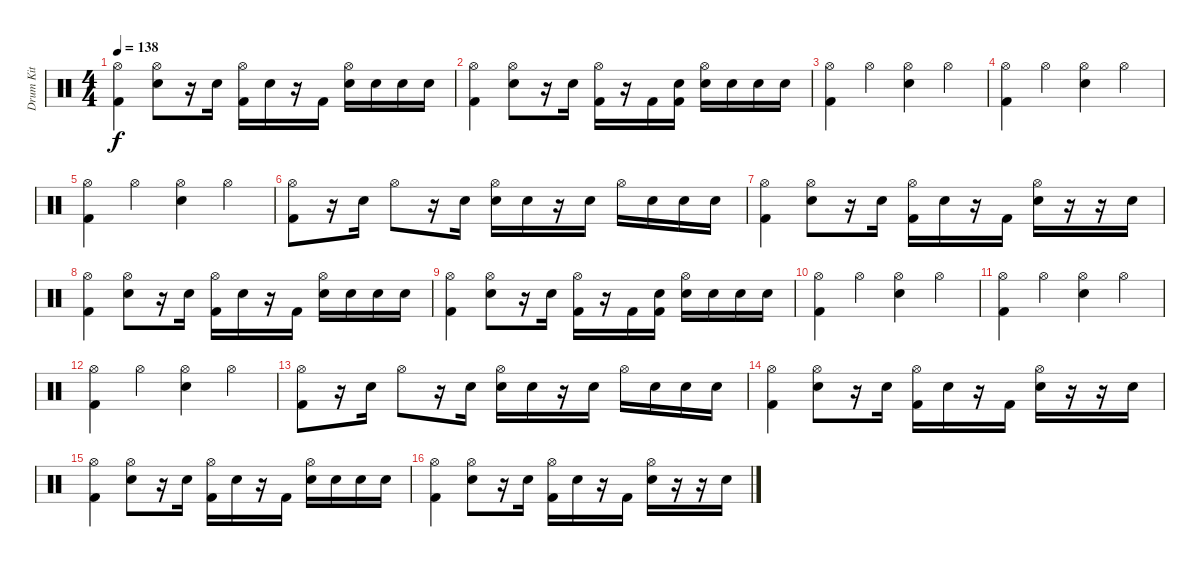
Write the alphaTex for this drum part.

\track ("Drum Kit" "Drum Kit") {instrument percussion}
\staff {score}
\articulation defaults
\ts (4 4)
\tempo 138
\clef neutral
\ks c
("Hi-Hat (open)" "Kick (hit) 2").4{dy f} ("Hi-Hat (open)" "Snare (hit) 2").8 r.16 "Snare (hit) 2".16 ("Hi-Hat (open)" "Kick (hit) 2").16 "Snare (hit) 2".16 r.16 "Kick (hit) 2".16 ("Hi-Hat (open)" "Snare (hit) 2").16 "Snare (hit) 2".16 "Snare (hit) 2".16 "Snare (hit) 2".16 |
("Hi-Hat (open)" "Kick (hit) 2").4 ("Hi-Hat (open)" "Snare (hit) 2").8 r.16 "Snare (hit) 2".16 ("Hi-Hat (open)" "Kick (hit) 2").16 r.16 "Kick (hit) 2".16 ("Snare (hit) 2" "Kick (hit) 2").16 ("Hi-Hat (open)" "Snare (hit) 2").16 "Snare (hit) 2".16 "Snare (hit) 2".16 "Snare (hit) 2".16 |
("Hi-Hat (open)" "Kick (hit) 2").4 "Hi-Hat (open)".4 ("Hi-Hat (open)" "Snare (hit) 2").4 "Hi-Hat (open)".4 |
("Hi-Hat (open)" "Kick (hit) 2").4 "Hi-Hat (open)".4 ("Hi-Hat (open)" "Snare (hit) 2").4 "Hi-Hat (open)".4 |
("Hi-Hat (open)" "Kick (hit) 2").4 "Hi-Hat (open)".4 ("Hi-Hat (open)" "Snare (hit) 2").4 "Hi-Hat (open)".4 |
("Hi-Hat (open)" "Kick (hit) 2").8 r.16 "Snare (hit) 2".16 "Hi-Hat (open)".8 r.16 "Snare (hit) 2".16 ("Hi-Hat (open)" "Snare (hit) 2").16 "Snare (hit) 2".16 r.16 "Snare (hit) 2".16 "Hi-Hat (open)".16 "Snare (hit) 2".16 "Snare (hit) 2".16 "Snare (hit) 2".16 |
("Hi-Hat (open)" "Kick (hit) 2").4 ("Hi-Hat (open)" "Snare (hit) 2").8 r.16 "Snare (hit) 2".16 ("Hi-Hat (open)" "Kick (hit) 2").16 "Snare (hit) 2".16 r.16 "Kick (hit) 2".16 ("Hi-Hat (open)" "Snare (hit) 2").16 r.16 r.16 "Snare (hit) 2".16 |
("Hi-Hat (open)" "Kick (hit) 2").4 ("Hi-Hat (open)" "Snare (hit) 2").8 r.16 "Snare (hit) 2".16 ("Hi-Hat (open)" "Kick (hit) 2").16 "Snare (hit) 2".16 r.16 "Kick (hit) 2".16 ("Hi-Hat (open)" "Snare (hit) 2").16 "Snare (hit) 2".16 "Snare (hit) 2".16 "Snare (hit) 2".16 |
("Hi-Hat (open)" "Kick (hit) 2").4 ("Hi-Hat (open)" "Snare (hit) 2").8 r.16 "Snare (hit) 2".16 ("Hi-Hat (open)" "Kick (hit) 2").16 r.16 "Kick (hit) 2".16 ("Snare (hit) 2" "Kick (hit) 2").16 ("Hi-Hat (open)" "Snare (hit) 2").16 "Snare (hit) 2".16 "Snare (hit) 2".16 "Snare (hit) 2".16 |
("Hi-Hat (open)" "Kick (hit) 2").4 "Hi-Hat (open)".4 ("Hi-Hat (open)" "Snare (hit) 2").4 "Hi-Hat (open)".4 |
("Hi-Hat (open)" "Kick (hit) 2").4 "Hi-Hat (open)".4 ("Hi-Hat (open)" "Snare (hit) 2").4 "Hi-Hat (open)".4 |
("Hi-Hat (open)" "Kick (hit) 2").4 "Hi-Hat (open)".4 ("Hi-Hat (open)" "Snare (hit) 2").4 "Hi-Hat (open)".4 |
("Hi-Hat (open)" "Kick (hit) 2").8 r.16 "Snare (hit) 2".16 "Hi-Hat (open)".8 r.16 "Snare (hit) 2".16 ("Hi-Hat (open)" "Snare (hit) 2").16 "Snare (hit) 2".16 r.16 "Snare (hit) 2".16 "Hi-Hat (open)".16 "Snare (hit) 2".16 "Snare (hit) 2".16 "Snare (hit) 2".16 |
("Hi-Hat (open)" "Kick (hit) 2").4 ("Hi-Hat (open)" "Snare (hit) 2").8 r.16 "Snare (hit) 2".16 ("Hi-Hat (open)" "Kick (hit) 2").16 "Snare (hit) 2".16 r.16 "Kick (hit) 2".16 ("Hi-Hat (open)" "Snare (hit) 2").16 r.16 r.16 "Snare (hit) 2".16 |
("Hi-Hat (open)" "Kick (hit) 2").4 ("Hi-Hat (open)" "Snare (hit) 2").8 r.16 "Snare (hit) 2".16 ("Hi-Hat (open)" "Kick (hit) 2").16 "Snare (hit) 2".16 r.16 "Kick (hit) 2".16 ("Hi-Hat (open)" "Snare (hit) 2").16 "Snare (hit) 2".16 "Snare (hit) 2".16 "Snare (hit) 2".16 |
("Hi-Hat (open)" "Kick (hit) 2").4 ("Hi-Hat (open)" "Snare (hit) 2").8 r.16 "Snare (hit) 2".16 ("Hi-Hat (open)" "Kick (hit) 2").16 "Snare (hit) 2".16 r.16 "Kick (hit) 2".16 ("Hi-Hat (open)" "Snare (hit) 2").16 r.16 r.16 "Snare (hit) 2".16
